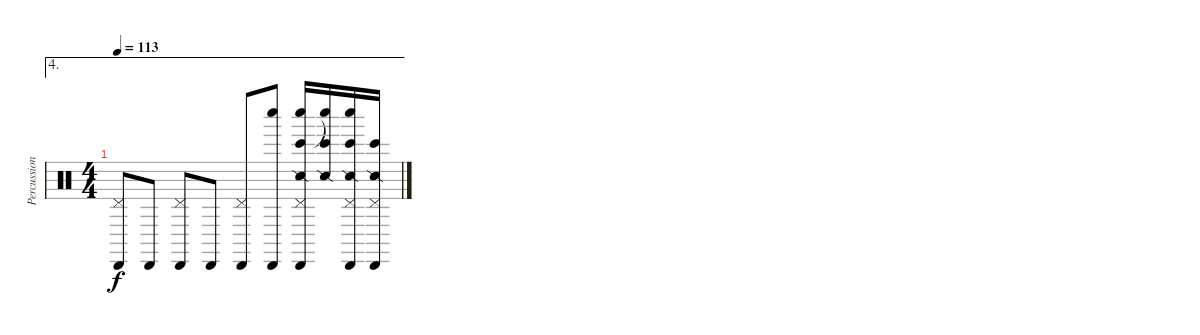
\track ("Percussion" "Percussion") {instrument percussion}
\staff {score}
\articulation defaults
\ae 4
\ts (4 4)
\tempo 113
\clef neutral
\ks c
("Cabasa (hit)" "Pedal Hi-Hat (hit)").8{dy f} "Cabasa (hit)".8 ("Cabasa (hit)" "Pedal Hi-Hat (hit)").8 "Cabasa (hit)".8 ("Cabasa (hit)" "Pedal Hi-Hat (hit)").8 ("Cabasa (hit)" "Whistle low (hit)").8 ("Cabasa (hit)" "Snare (side stick) 2" "Bongo High (hit)" "Pedal Hi-Hat (hit)" "Whistle low (hit)").16 ("Snare (side stick) 2" "Bongo High (hit)" "Whistle low (hit)"{t}).16 ("Cabasa (hit)" "Snare (side stick) 2" "Bongo High (hit)" "Pedal Hi-Hat (hit)" "Whistle low (hit)").16 ("Cabasa (hit)" "Snare (side stick) 2" "Bongo High (hit)" "Pedal Hi-Hat (hit)").16
